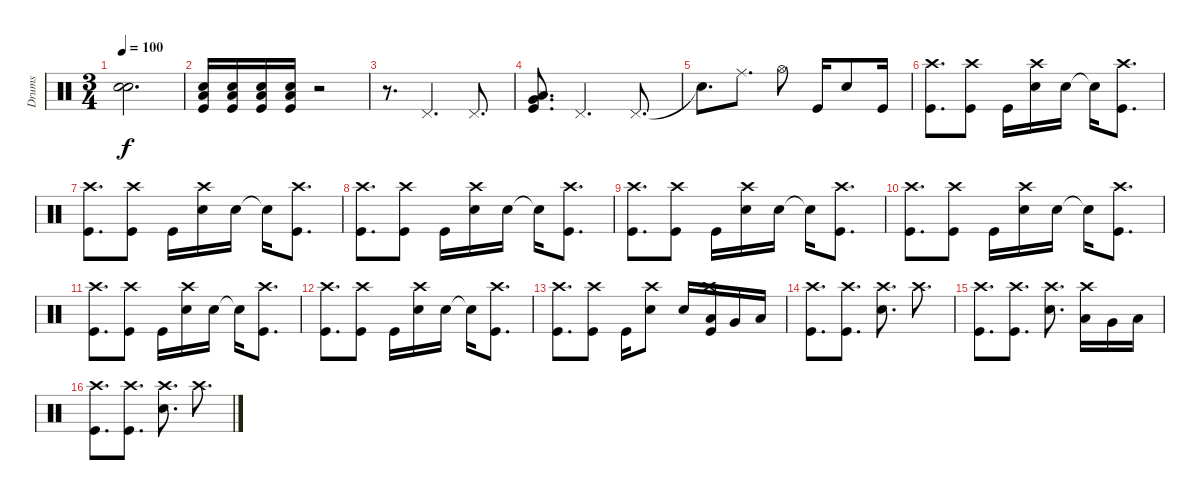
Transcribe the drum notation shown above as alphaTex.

\track ("Drums" "Drums") {instrument percussion}
\staff {score}
\articulation defaults
\ts (3 4)
\tempo 100
\clef neutral
\ks c
("Snare (hit)"{t} "Snare (hit)"{t}).2{d dy f} |
("Snare (hit) 2" "Low Floor Tom (hit)" "Kick (hit)").16 ("Snare (hit) 2" "Low Floor Tom (hit)" "Kick (hit)").16 ("Snare (hit) 2" "Low Floor Tom (hit)" "Kick (hit)").16 ("Snare (hit) 2" "Low Floor Tom (hit)" "Kick (hit)").16 r.2 |
r.8{d} "Pedal Hi-Hat (hit)".4{d} "Pedal Hi-Hat (hit)".8{d} |
("Very Low Tom (hit)" "Low Floor Tom (hit)" "Kick (hit)").8{d} "Pedal Hi-Hat (hit)".4{d} "Pedal Hi-Hat (hit)".8{d} |
"Snare (hit)"{t}.8{d} "Ride (middle)".8{d} "Hi-Hat (open)".8 "Kick (hit)".16 "Snare (hit) 2".8 "Kick (hit)".16 |
("Crash high (hit)" "Kick (hit)").8{d} ("Crash high (hit)" "Kick (hit)").8 "Kick (hit)".16 ("Crash high (hit)" "Snare (hit) 2").16 "Snare (hit) 2".16 "Snare (hit) 2"{t}.16 ("Crash high (hit)" "Kick (hit)").8{d} |
("Crash high (hit)" "Kick (hit)").8{d} ("Crash high (hit)" "Kick (hit)").8 "Kick (hit)".16 ("Crash high (hit)" "Snare (hit) 2").16 "Snare (hit) 2".16 "Snare (hit) 2"{t}.16 ("Crash high (hit)" "Kick (hit)").8{d} |
("Crash high (hit)" "Kick (hit)").8{d} ("Crash high (hit)" "Kick (hit)").8 "Kick (hit)".16 ("Crash high (hit)" "Snare (hit) 2").16 "Snare (hit) 2".16 "Snare (hit) 2"{t}.16 ("Crash high (hit)" "Kick (hit)").8{d} |
("Crash high (hit)" "Kick (hit)").8{d} ("Crash high (hit)" "Kick (hit)").8 "Kick (hit)".16 ("Crash high (hit)" "Snare (hit) 2").16 "Snare (hit) 2".16 "Snare (hit) 2"{t}.16 ("Crash high (hit)" "Kick (hit)").8{d} |
("Crash high (hit)" "Kick (hit)").8{d} ("Crash high (hit)" "Kick (hit)").8 "Kick (hit)".16 ("Crash high (hit)" "Snare (hit) 2").16 "Snare (hit) 2".16 "Snare (hit) 2"{t}.16 ("Crash high (hit)" "Kick (hit)").8{d} |
("Crash high (hit)" "Kick (hit)").8{d} ("Crash high (hit)" "Kick (hit)").8 "Kick (hit)".16 ("Crash high (hit)" "Snare (hit) 2").16 "Snare (hit) 2".16 "Snare (hit) 2"{t}.16 ("Crash high (hit)" "Kick (hit)").8{d} |
("Crash high (hit)" "Kick (hit)").8{d} ("Crash high (hit)" "Kick (hit)").8 "Kick (hit)".16 ("Crash high (hit)" "Snare (hit) 2").16 "Snare (hit) 2".16 "Snare (hit) 2"{t}.16 ("Crash high (hit)" "Kick (hit)").8{d} |
("Crash high (hit)" "Kick (hit)").8{d} ("Crash high (hit)" "Kick (hit)").8 "Kick (hit)".16 ("Crash high (hit)" "Snare (hit) 2").8 "Snare (hit) 2".16 ("Crash high (hit)" "Low Tom (hit)" "Kick (hit)").16 "Very Low Tom (hit)".16 "Low Floor Tom (hit)".16 |
("Crash high (hit)" "Kick (hit)").8{d} ("Crash high (hit)" "Kick (hit)").8{d} ("Crash high (hit)" "Snare (hit) 2").8{d} "Crash high (hit)".8{d} |
("Crash high (hit)" "Kick (hit)").8{d} ("Crash high (hit)" "Kick (hit)").8{d} ("Crash high (hit)" "Snare (hit) 2").8{d} ("Crash high (hit)" "Low Floor Tom (hit)").16 "Very Low Tom (hit)".16 "Low Tom (hit)".16 |
("Crash high (hit)" "Kick (hit)").8{d} ("Crash high (hit)" "Kick (hit)").8{d} ("Crash high (hit)" "Snare (hit) 2").8{d} "Crash high (hit)".8{d}
